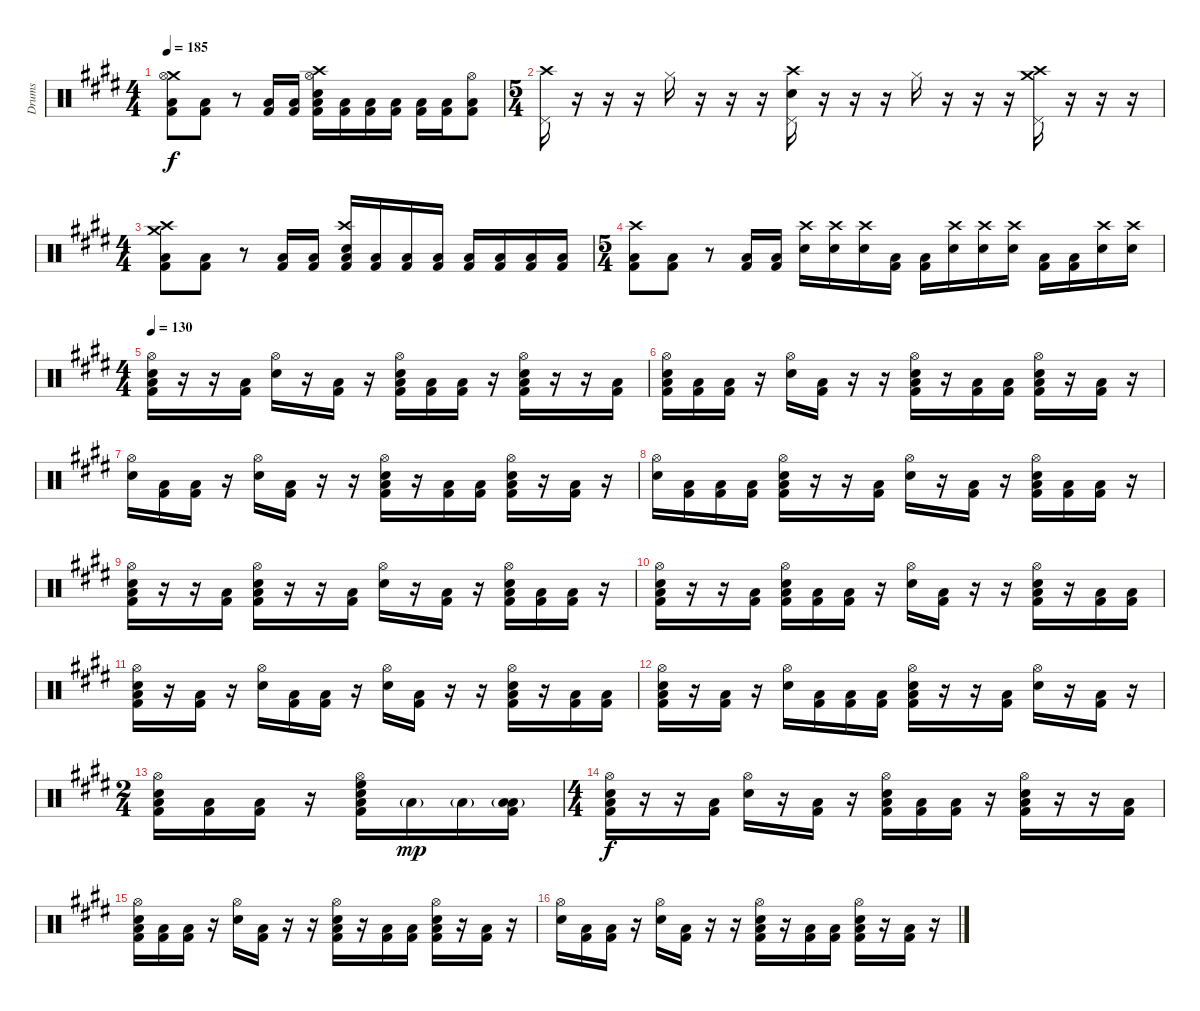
\track ("Drums" "Drums") {instrument percussion}
\staff {score}
\articulation defaults
\ts (4 4)
\tempo 185
\clef neutral
\ks e
("Crash medium (hit)" "Hi-Hat (open)" "Low Floor Tom (hit)" "Kick (hit) 2").8{dy f} ("Low Floor Tom (hit)" "Kick (hit) 2").8 r.8 ("Low Floor Tom (hit)" "Kick (hit) 2").16 ("Low Floor Tom (hit)" "Kick (hit) 2").16 ("Crash high (hit)" "Electric Snare (hit)" "Hi-Hat (open)" "Low Floor Tom (hit)" "Kick (hit) 2").16 ("Low Floor Tom (hit)" "Kick (hit) 2").16 ("Low Floor Tom (hit)" "Kick (hit) 2").16 ("Low Floor Tom (hit)" "Kick (hit) 2").16 ("Low Floor Tom (hit)" "Kick (hit) 2").16 ("Low Floor Tom (hit)" "Kick (hit) 2").16 ("Hi-Hat (open)" "Low Floor Tom (hit)" "Kick (hit) 2").8 |
\ts (5 4)
("Crash high (hit)" "Pedal Hi-Hat (hit)").16 r.16 r.16 r.16 "Hi-Hat (closed)".16 r.16 r.16 r.16 ("Crash high (hit)" "Electric Snare (hit)" "Pedal Hi-Hat (hit)").16 r.16 r.16 r.16 "Hi-Hat (closed)".16 r.16 r.16 r.16 ("Crash high (hit)" "Crash medium (hit)" "Pedal Hi-Hat (hit)").16 r.16 r.16 r.16 |
\ts (4 4)
("Crash medium (hit)" "Crash high (hit)" "Low Floor Tom (hit)" "Kick (hit) 2").8 ("Low Floor Tom (hit)" "Kick (hit) 2").8 r.8 ("Low Floor Tom (hit)" "Kick (hit) 2").16 ("Low Floor Tom (hit)" "Kick (hit) 2").16 ("Crash high (hit)" "Electric Snare (hit)" "Low Floor Tom (hit)" "Kick (hit) 2").16 ("Low Floor Tom (hit)" "Kick (hit) 2").16 ("Low Floor Tom (hit)" "Kick (hit) 2").16 ("Low Floor Tom (hit)" "Kick (hit) 2").16 ("Low Floor Tom (hit)" "Kick (hit) 2").16 ("Low Floor Tom (hit)" "Kick (hit) 2").16 ("Low Floor Tom (hit)" "Kick (hit) 2").16 ("Low Floor Tom (hit)" "Kick (hit) 2").16 |
\ts (5 4)
("Crash high (hit)" "Low Floor Tom (hit)" "Kick (hit) 2").8 ("Low Floor Tom (hit)" "Kick (hit) 2").8 r.8 ("Low Floor Tom (hit)" "Kick (hit) 2").16 ("Low Floor Tom (hit)" "Kick (hit) 2").16 ("Crash high (hit)" "Electric Snare (hit)").16 ("Crash high (hit)" "Electric Snare (hit)").16 ("Crash high (hit)" "Electric Snare (hit)").16 ("Low Floor Tom (hit)" "Kick (hit) 2").16 ("Low Floor Tom (hit)" "Kick (hit) 2").16 ("Crash high (hit)" "Electric Snare (hit)").16 ("Crash high (hit)" "Electric Snare (hit)").16 ("Crash high (hit)" "Electric Snare (hit)").16 ("Low Floor Tom (hit)" "Kick (hit) 2").16 ("Low Floor Tom (hit)" "Kick (hit) 2").16 ("Crash high (hit)" "Electric Snare (hit)").16 ("Crash high (hit)" "Electric Snare (hit)").16 |
\ts (4 4)
\tempo 130
("Low Floor Tom (hit)" "Hi-Hat (open)" "Electric Snare (hit)" "Kick (hit) 2").16 r.16 r.16 ("Low Floor Tom (hit)" "Kick (hit) 2").16 ("Hi-Hat (open)" "Electric Snare (hit)").16 r.16 ("Low Floor Tom (hit)" "Kick (hit) 2").16 r.16 ("Low Floor Tom (hit)" "Hi-Hat (open)" "Electric Snare (hit)" "Kick (hit) 2").16 ("Low Floor Tom (hit)" "Kick (hit) 2").16 ("Low Floor Tom (hit)" "Kick (hit) 2").16 r.16 ("Low Floor Tom (hit)" "Hi-Hat (open)" "Electric Snare (hit)" "Kick (hit) 2").16 r.16 r.16 ("Low Floor Tom (hit)" "Kick (hit) 2").16 |
("Low Floor Tom (hit)" "Hi-Hat (open)" "Electric Snare (hit)" "Kick (hit) 2").16 ("Low Floor Tom (hit)" "Kick (hit) 2").16 ("Low Floor Tom (hit)" "Kick (hit) 2").16 r.16 ("Hi-Hat (open)" "Electric Snare (hit)").16 ("Low Floor Tom (hit)" "Kick (hit) 2").16 r.16 r.16 ("Low Floor Tom (hit)" "Hi-Hat (open)" "Electric Snare (hit)" "Kick (hit) 2").16 r.16 ("Low Floor Tom (hit)" "Kick (hit) 2").16 ("Low Floor Tom (hit)" "Kick (hit) 2").16 ("Low Floor Tom (hit)" "Hi-Hat (open)" "Electric Snare (hit)" "Kick (hit) 2").16 r.16 ("Low Floor Tom (hit)" "Kick (hit) 2").16 r.16 |
("Hi-Hat (open)" "Electric Snare (hit)").16 ("Low Floor Tom (hit)" "Kick (hit) 2").16 ("Low Floor Tom (hit)" "Kick (hit) 2").16 r.16 ("Hi-Hat (open)" "Electric Snare (hit)").16 ("Low Floor Tom (hit)" "Kick (hit) 2").16 r.16 r.16 ("Low Floor Tom (hit)" "Hi-Hat (open)" "Electric Snare (hit)" "Kick (hit) 2").16 r.16 ("Low Floor Tom (hit)" "Kick (hit) 2").16 ("Low Floor Tom (hit)" "Kick (hit) 2").16 ("Low Floor Tom (hit)" "Hi-Hat (open)" "Electric Snare (hit)" "Kick (hit) 2").16 r.16 ("Low Floor Tom (hit)" "Kick (hit) 2").16 r.16 |
("Hi-Hat (open)" "Electric Snare (hit)").16 ("Low Floor Tom (hit)" "Kick (hit) 2").16 ("Low Floor Tom (hit)" "Kick (hit) 2").16 ("Low Floor Tom (hit)" "Kick (hit) 2").16 ("Low Floor Tom (hit)" "Hi-Hat (open)" "Electric Snare (hit)" "Kick (hit) 2").16 r.16 r.16 ("Low Floor Tom (hit)" "Kick (hit) 2").16 ("Hi-Hat (open)" "Electric Snare (hit)").16 r.16 ("Low Floor Tom (hit)" "Kick (hit) 2").16 r.16 ("Low Floor Tom (hit)" "Hi-Hat (open)" "Electric Snare (hit)" "Kick (hit) 2").16 ("Low Floor Tom (hit)" "Kick (hit) 2").16 ("Low Floor Tom (hit)" "Kick (hit) 2").16 r.16 |
("Low Floor Tom (hit)" "Hi-Hat (open)" "Electric Snare (hit)" "Kick (hit) 2").16 r.16 r.16 ("Low Floor Tom (hit)" "Kick (hit) 2").16 ("Low Floor Tom (hit)" "Hi-Hat (open)" "Electric Snare (hit)" "Kick (hit) 2").16 r.16 r.16 ("Low Floor Tom (hit)" "Kick (hit) 2").16 ("Hi-Hat (open)" "Electric Snare (hit)").16 r.16 ("Low Floor Tom (hit)" "Kick (hit) 2").16 r.16 ("Low Floor Tom (hit)" "Hi-Hat (open)" "Electric Snare (hit)" "Kick (hit) 2").16 ("Low Floor Tom (hit)" "Kick (hit) 2").16 ("Low Floor Tom (hit)" "Kick (hit) 2").16 r.16 |
("Low Floor Tom (hit)" "Hi-Hat (open)" "Electric Snare (hit)" "Kick (hit) 2").16 r.16 r.16 ("Low Floor Tom (hit)" "Kick (hit) 2").16 ("Low Floor Tom (hit)" "Hi-Hat (open)" "Electric Snare (hit)" "Kick (hit) 2").16 ("Low Floor Tom (hit)" "Kick (hit) 2").16 ("Low Floor Tom (hit)" "Kick (hit) 2").16 r.16 ("Hi-Hat (open)" "Electric Snare (hit)").16 ("Low Floor Tom (hit)" "Kick (hit) 2").16 r.16 r.16 ("Low Floor Tom (hit)" "Hi-Hat (open)" "Electric Snare (hit)" "Kick (hit) 2").16 r.16 ("Low Floor Tom (hit)" "Kick (hit) 2").16 ("Low Floor Tom (hit)" "Kick (hit) 2").16 |
("Low Floor Tom (hit)" "Hi-Hat (open)" "Electric Snare (hit)" "Kick (hit) 2").16 r.16 ("Low Floor Tom (hit)" "Kick (hit) 2").16 r.16 ("Hi-Hat (open)" "Electric Snare (hit)").16 ("Low Floor Tom (hit)" "Kick (hit) 2").16 ("Low Floor Tom (hit)" "Kick (hit) 2").16 r.16 ("Hi-Hat (open)" "Electric Snare (hit)").16 ("Low Floor Tom (hit)" "Kick (hit) 2").16 r.16 r.16 ("Low Floor Tom (hit)" "Hi-Hat (open)" "Electric Snare (hit)" "Kick (hit) 2").16 r.16 ("Low Floor Tom (hit)" "Kick (hit) 2").16 ("Low Floor Tom (hit)" "Kick (hit) 2").16 |
("Low Floor Tom (hit)" "Hi-Hat (open)" "Electric Snare (hit)" "Kick (hit) 2").16 r.16 ("Low Floor Tom (hit)" "Kick (hit) 2").16 r.16 ("Hi-Hat (open)" "Electric Snare (hit)").16 ("Low Floor Tom (hit)" "Kick (hit) 2").16 ("Low Floor Tom (hit)" "Kick (hit) 2").16 ("Low Floor Tom (hit)" "Kick (hit) 2").16 ("Low Floor Tom (hit)" "Hi-Hat (open)" "Electric Snare (hit)" "Kick (hit) 2").16 r.16 r.16 ("Low Floor Tom (hit)" "Kick (hit) 2").16 ("Hi-Hat (open)" "Electric Snare (hit)").16 r.16 ("Low Floor Tom (hit)" "Kick (hit) 2").16 r.16 |
\ts (2 4)
("Low Floor Tom (hit)" "Hi-Hat (open)" "Electric Snare (hit)" "Kick (hit) 2").16 ("Low Floor Tom (hit)" "Kick (hit) 2").16 ("Low Floor Tom (hit)" "Kick (hit) 2").16 r.16 ("High Floor Tom (hit)" "Low Floor Tom (hit)" "Hi-Hat (open)" "Electric Snare (hit)" "Kick (hit) 2").16 "Low Tom (hit)"{g}.16{dy mp} "Low Tom (hit)"{g}.16 ("Low Tom (hit)"{g} "Low Floor Tom (hit)" "Kick (hit) 2").16 |
\ts (4 4)
("Low Floor Tom (hit)" "Hi-Hat (open)" "Electric Snare (hit)" "Kick (hit) 2").16{dy f} r.16 r.16 ("Low Floor Tom (hit)" "Kick (hit) 2").16 ("Hi-Hat (open)" "Electric Snare (hit)").16 r.16 ("Low Floor Tom (hit)" "Kick (hit) 2").16 r.16 ("Low Floor Tom (hit)" "Hi-Hat (open)" "Electric Snare (hit)" "Kick (hit) 2").16 ("Low Floor Tom (hit)" "Kick (hit) 2").16 ("Low Floor Tom (hit)" "Kick (hit) 2").16 r.16 ("Low Floor Tom (hit)" "Hi-Hat (open)" "Electric Snare (hit)" "Kick (hit) 2").16 r.16 r.16 ("Low Floor Tom (hit)" "Kick (hit) 2").16 |
("Low Floor Tom (hit)" "Hi-Hat (open)" "Electric Snare (hit)" "Kick (hit) 2").16 ("Low Floor Tom (hit)" "Kick (hit) 2").16 ("Low Floor Tom (hit)" "Kick (hit) 2").16 r.16 ("Hi-Hat (open)" "Electric Snare (hit)").16 ("Low Floor Tom (hit)" "Kick (hit) 2").16 r.16 r.16 ("Low Floor Tom (hit)" "Hi-Hat (open)" "Electric Snare (hit)" "Kick (hit) 2").16 r.16 ("Low Floor Tom (hit)" "Kick (hit) 2").16 ("Low Floor Tom (hit)" "Kick (hit) 2").16 ("Low Floor Tom (hit)" "Hi-Hat (open)" "Electric Snare (hit)" "Kick (hit) 2").16 r.16 ("Low Floor Tom (hit)" "Kick (hit) 2").16 r.16 |
("Hi-Hat (open)" "Electric Snare (hit)").16 ("Low Floor Tom (hit)" "Kick (hit) 2").16 ("Low Floor Tom (hit)" "Kick (hit) 2").16 r.16 ("Hi-Hat (open)" "Electric Snare (hit)").16 ("Low Floor Tom (hit)" "Kick (hit) 2").16 r.16 r.16 ("Low Floor Tom (hit)" "Hi-Hat (open)" "Electric Snare (hit)" "Kick (hit) 2").16 r.16 ("Low Floor Tom (hit)" "Kick (hit) 2").16 ("Low Floor Tom (hit)" "Kick (hit) 2").16 ("Low Floor Tom (hit)" "Hi-Hat (open)" "Electric Snare (hit)" "Kick (hit) 2").16 r.16 ("Low Floor Tom (hit)" "Kick (hit) 2").16 r.16
